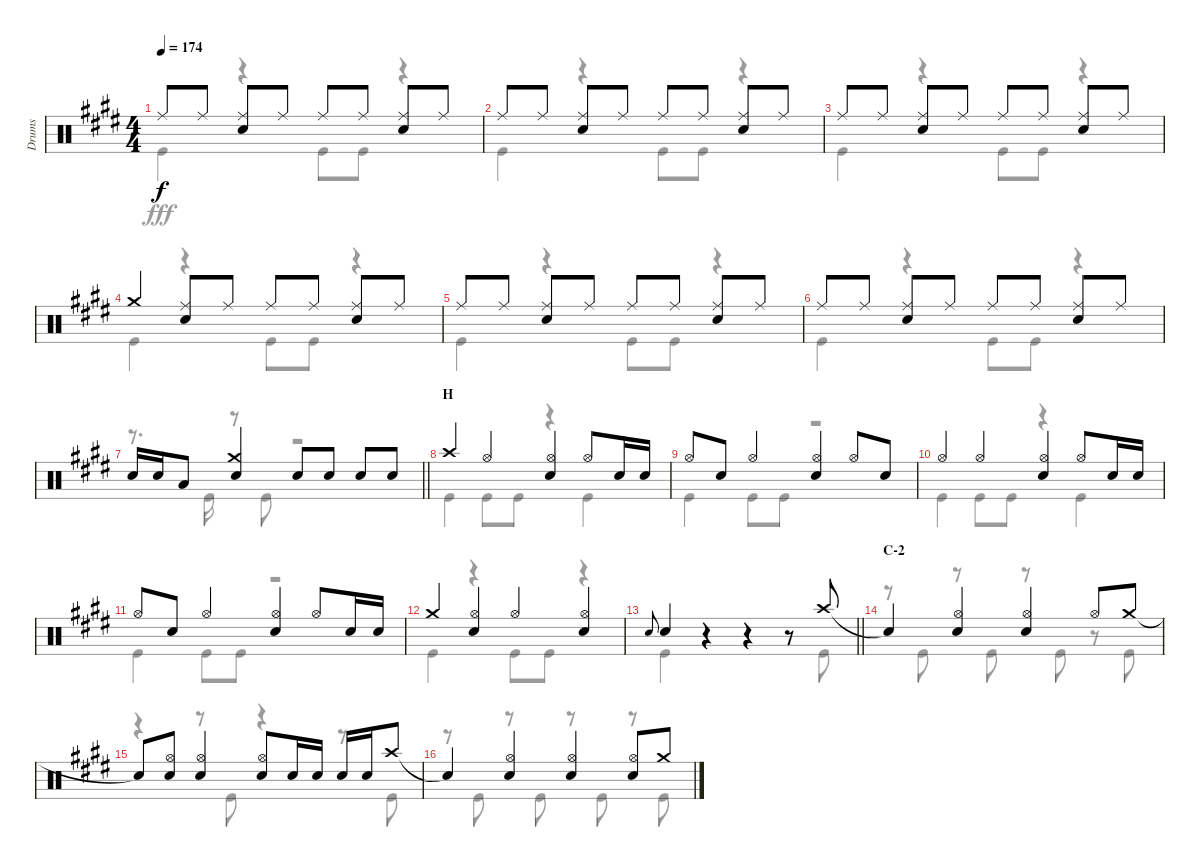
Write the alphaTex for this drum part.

\track ("Drums" "Drums") {instrument percussion}
\staff {score}
\articulation defaults
\voice
\ts (4 4)
\tempo 174
\clef neutral
\ks e "Ride (middle)".8{dy f} "Ride (middle)".8
("Ride (middle)" "Snare (hit) 2").8 "Ride (middle)".8 "Ride (middle)".8 "Ride (middle)".8 ("Ride (middle)" "Snare (hit) 2").8 "Ride (middle)".8 |
"Ride (middle)".8 "Ride (middle)".8 ("Ride (middle)" "Snare (hit) 2").8 "Ride (middle)".8 "Ride (middle)".8 "Ride (middle)".8 ("Ride (middle)" "Snare (hit) 2").8 "Ride (middle)".8 |
"Ride (middle)".8 "Ride (middle)".8 ("Ride (middle)" "Snare (hit) 2").8 "Ride (middle)".8 "Ride (middle)".8 "Ride (middle)".8 ("Ride (middle)" "Snare (hit) 2").8 "Ride (middle)".8 |
"Crash medium (hit)".4 ("Ride (middle)" "Snare (hit) 2").8 "Ride (middle)".8 "Ride (middle)".8 "Ride (middle)".8 ("Ride (middle)" "Snare (hit) 2").8 "Ride (middle)".8 |
"Ride (middle)".8 "Ride (middle)".8 ("Ride (middle)" "Snare (hit) 2").8 "Ride (middle)".8 "Ride (middle)".8 "Ride (middle)".8 ("Ride (middle)" "Snare (hit) 2").8 "Ride (middle)".8 |
"Ride (middle)".8 "Ride (middle)".8 ("Ride (middle)" "Snare (hit) 2").8 "Ride (middle)".8 "Ride (middle)".8 "Ride (middle)".8 ("Ride (middle)" "Snare (hit) 2").8 "Ride (middle)".8 |
\barLineRight lightlight "Snare (hit) 2".16 "Snare (hit) 2".16 "Low Tom (hit)".8
("Crash medium (hit)" "Snare (hit) 2").4 "Snare (hit) 2".8 "Snare (hit) 2".8 "Snare (hit) 2".8 "Snare (hit) 2".8 |
\section ("" "H")
"Crash high (hit)".4 "Hi-Hat (open)".4 ("Hi-Hat (open)" "Snare (hit) 2").4 "Hi-Hat (open)".8 "Snare (hit) 2".16 "Snare (hit) 2".16 |
"Hi-Hat (open)".8 "Snare (hit) 2".8 "Hi-Hat (open)".4 ("Hi-Hat (open)" "Snare (hit) 2").4 "Hi-Hat (open)".8 "Snare (hit) 2".8 |
"Hi-Hat (open)".4 "Hi-Hat (open)".4 ("Hi-Hat (open)" "Snare (hit) 2").4 "Hi-Hat (open)".8 "Snare (hit) 2".16 "Snare (hit) 2".16 |
"Hi-Hat (open)".8 "Snare (hit) 2".8 "Hi-Hat (open)".4 ("Hi-Hat (open)" "Snare (hit) 2").4 "Hi-Hat (open)".8 "Snare (hit) 2".16 "Snare (hit) 2".16 |
"Crash medium (hit)".4 ("Hi-Hat (open)" "Snare (hit) 2").4 "Hi-Hat (open)".4 ("Hi-Hat (open)" "Snare (hit) 2").4 |
\barLineRight lightlight "Snare (hit) 2".8{gr onbeat} "Snare (hit) 2".4
r.4 r.4 r.8 "Crash high (hit)".8 |
\section ("" "C-2")
"Snare (hit)"{t}.4 ("Hi-Hat (open)" "Snare (hit) 2").4 ("Hi-Hat (open)" "Snare (hit) 2").4 "Hi-Hat (open)".8 "Crash medium (hit)".8 |
"Snare (hit)"{t}.8 ("Hi-Hat (open)" "Snare (hit) 2").8 ("Hi-Hat (open)" "Snare (hit) 2").4 ("Hi-Hat (open)" "Snare (hit) 2").8 "Snare (hit) 2".16 "Snare (hit) 2".16 "Snare (hit) 2".16 "Snare (hit) 2".16 "Crash high (hit)".8 |
"Snare (hit)"{t}.4 ("Hi-Hat (open)" "Snare (hit) 2").4 ("Hi-Hat (open)" "Snare (hit) 2").4 ("Hi-Hat (open)" "Snare (hit) 2").8 "Crash medium (hit)".8
\voice
\clef neutral
\ottava regular
\simile none
\ks e "Kick (hit)".4{dy fff}
r.4 "Kick (hit)".8 "Kick (hit)".8 r.4 |
"Kick (hit)".4 r.4 "Kick (hit)".8 "Kick (hit)".8 r.4 |
"Kick (hit)".4 r.4 "Kick (hit)".8 "Kick (hit)".8 r.4 |
"Kick (hit)".4 r.4 "Kick (hit)".8 "Kick (hit)".8 r.4 |
"Kick (hit)".4 r.4 "Kick (hit)".8 "Kick (hit)".8 r.4 |
"Kick (hit)".4 r.4 "Kick (hit)".8 "Kick (hit)".8 r.4 |
\barLineRight lightlight
r.8{d} "Kick (hit)".16 r.8 "Kick (hit)".8 r.2 |
"Kick (hit)".4 "Kick (hit)".8 "Kick (hit)".8 r.4 "Kick (hit)".4 |
"Kick (hit)".4 "Kick (hit)".8 "Kick (hit)".8 r.2 |
"Kick (hit)".4 "Kick (hit)".8 "Kick (hit)".8 r.4 "Kick (hit)".4 |
"Kick (hit)".4 "Kick (hit)".8 "Kick (hit)".8 r.2 |
"Kick (hit)".4 r.4 "Kick (hit)".8 "Kick (hit)".8 r.4 |
\barLineRight lightlight "Kick (hit)".4
r.4 r.4 r.8 "Kick (hit)".8 |
r.8 "Kick (hit)".8 r.8 "Kick (hit)".8 r.8 "Kick (hit)".8 r.8 "Kick (hit)".8 |
r.4 r.8 "Kick (hit)".8 r.4 r.8 "Kick (hit)".8 |
r.8 "Kick (hit)".8 r.8 "Kick (hit)".8 r.8 "Kick (hit)".8 r.8 "Kick (hit)".8
